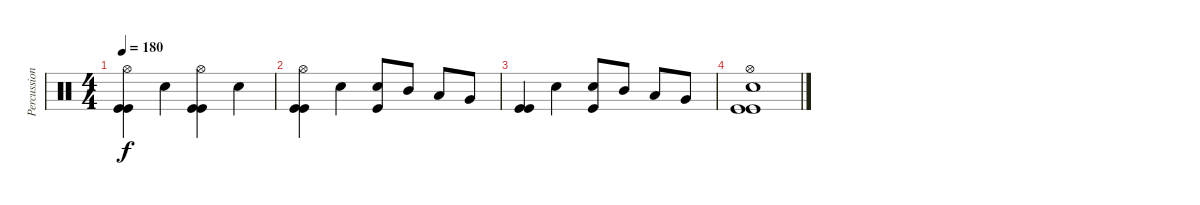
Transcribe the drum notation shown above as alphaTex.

\track ("Percussion" "Percussion") {instrument percussion}
\staff {score}
\articulation defaults
\ts (4 4)
\tempo 180
\clef neutral
\ks c
("Hi-Hat (open)" "Kick (hit)" "Kick (hit)").4{dy f} "Electric Snare (hit)".4 ("Hi-Hat (open)" "Kick (hit)" "Kick (hit)").4 "Electric Snare (hit)".4 |
("Hi-Hat (open)" "Kick (hit)" "Kick (hit)").4 "Electric Snare (hit)".4 ("Electric Snare (hit)" "Kick (hit)").8 "Mid Tom (hit)".8 "Low Tom (hit)".8 "Very Low Tom (hit)".8 |
("Kick (hit)" "Kick (hit)").4 "Electric Snare (hit)".4 ("Electric Snare (hit)" "Kick (hit)").8 "Mid Tom (hit)".8 "Low Tom (hit)".8 "Very Low Tom (hit)".8 |
("Hi-Hat (open)" "Kick (hit)" "Kick (hit)" "Electric Snare (hit)").1
